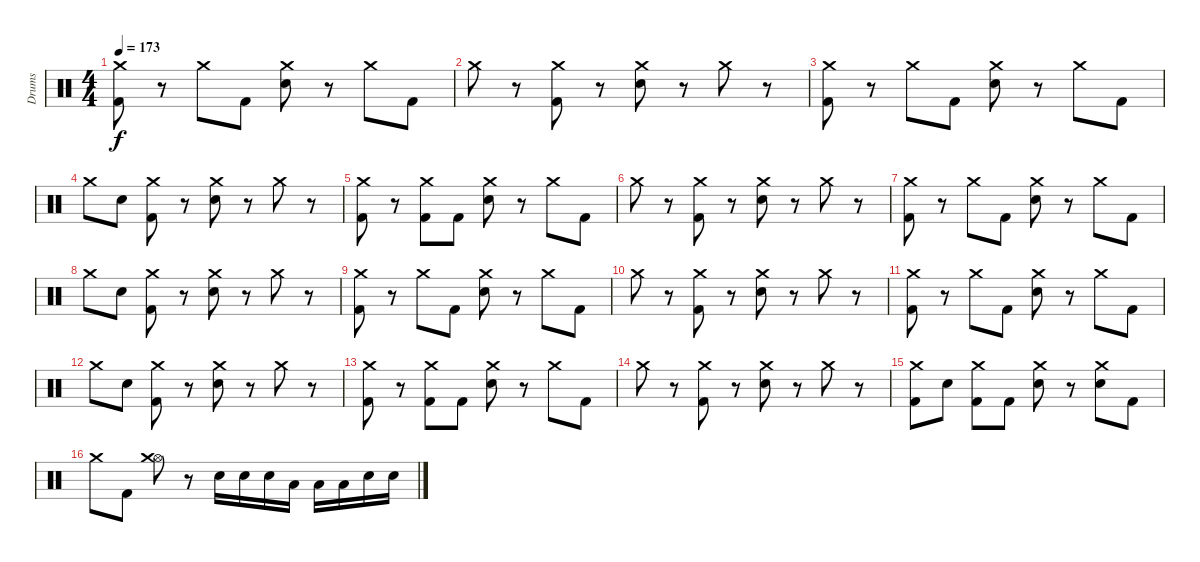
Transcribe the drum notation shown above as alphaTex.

\track ("Drums" "Drums") {instrument percussion}
\staff {score}
\articulation defaults
\ts (4 4)
\tempo 173
\clef neutral
\ks c
("Kick (hit) 2" "Crash medium (hit)").8{dy f} r.8 "Crash medium (hit)".8 "Kick (hit) 2".8 ("Electric Snare (hit)" "Crash medium (hit)").8 r.8 "Crash medium (hit)".8 "Kick (hit) 2".8 |
"Crash medium (hit)".8 r.8 ("Kick (hit) 2" "Crash medium (hit)").8 r.8 ("Electric Snare (hit)" "Crash medium (hit)").8 r.8 "Crash medium (hit)".8 r.8 |
("Kick (hit) 2" "Crash medium (hit)").8 r.8 "Crash medium (hit)".8 "Kick (hit) 2".8 ("Electric Snare (hit)" "Crash medium (hit)").8 r.8 "Crash medium (hit)".8 "Kick (hit) 2".8 |
"Crash medium (hit)".8 "Electric Snare (hit)".8 ("Kick (hit) 2" "Crash medium (hit)").8 r.8 ("Electric Snare (hit)" "Crash medium (hit)").8 r.8 "Crash medium (hit)".8 r.8 |
("Kick (hit) 2" "Crash medium (hit)").8 r.8 ("Kick (hit) 2" "Crash medium (hit)").8 "Kick (hit) 2".8 ("Electric Snare (hit)" "Crash medium (hit)").8 r.8 "Crash medium (hit)".8 "Kick (hit) 2".8 |
"Crash medium (hit)".8 r.8 ("Kick (hit) 2" "Crash medium (hit)").8 r.8 ("Electric Snare (hit)" "Crash medium (hit)").8 r.8 "Crash medium (hit)".8 r.8 |
("Kick (hit) 2" "Crash medium (hit)").8 r.8 "Crash medium (hit)".8 "Kick (hit) 2".8 ("Electric Snare (hit)" "Crash medium (hit)").8 r.8 "Crash medium (hit)".8 "Kick (hit) 2".8 |
"Crash medium (hit)".8 "Electric Snare (hit)".8 ("Kick (hit) 2" "Crash medium (hit)").8 r.8 ("Electric Snare (hit)" "Crash medium (hit)").8 r.8 "Crash medium (hit)".8 r.8 |
("Kick (hit) 2" "Crash medium (hit)").8 r.8 "Crash medium (hit)".8 "Kick (hit) 2".8 ("Electric Snare (hit)" "Crash medium (hit)").8 r.8 "Crash medium (hit)".8 "Kick (hit) 2".8 |
"Crash medium (hit)".8 r.8 ("Kick (hit) 2" "Crash medium (hit)").8 r.8 ("Electric Snare (hit)" "Crash medium (hit)").8 r.8 "Crash medium (hit)".8 r.8 |
("Kick (hit) 2" "Crash medium (hit)").8 r.8 "Crash medium (hit)".8 "Kick (hit) 2".8 ("Electric Snare (hit)" "Crash medium (hit)").8 r.8 "Crash medium (hit)".8 "Kick (hit) 2".8 |
"Crash medium (hit)".8 "Electric Snare (hit)".8 ("Kick (hit) 2" "Crash medium (hit)").8 r.8 ("Electric Snare (hit)" "Crash medium (hit)").8 r.8 "Crash medium (hit)".8 r.8 |
("Kick (hit) 2" "Crash medium (hit)").8 r.8 ("Kick (hit) 2" "Crash medium (hit)").8 "Kick (hit) 2".8 ("Electric Snare (hit)" "Crash medium (hit)").8 r.8 "Crash medium (hit)".8 "Kick (hit) 2".8 |
"Crash medium (hit)".8 r.8 ("Kick (hit) 2" "Crash medium (hit)").8 r.8 ("Electric Snare (hit)" "Crash medium (hit)").8 r.8 "Crash medium (hit)".8 r.8 |
("Kick (hit) 2" "Crash medium (hit)").8 "Electric Snare (hit)".8 ("Kick (hit) 2" "Crash medium (hit)").8 "Kick (hit) 2".8 ("Electric Snare (hit)" "Crash medium (hit)").8 r.8 ("Electric Snare (hit)" "Crash medium (hit)").8 "Kick (hit) 2".8 |
"Crash medium (hit)".8 "Kick (hit) 2".8 ("Hi-Hat (open)" "Crash medium (hit)").8 r.8 "Electric Snare (hit)".16 "Electric Snare (hit)".16 "Electric Snare (hit)".16 "Low Floor Tom (hit)".16 "Low Floor Tom (hit)".16 "Low Floor Tom (hit)".16 "Electric Snare (hit)".16 "Electric Snare (hit)".16
